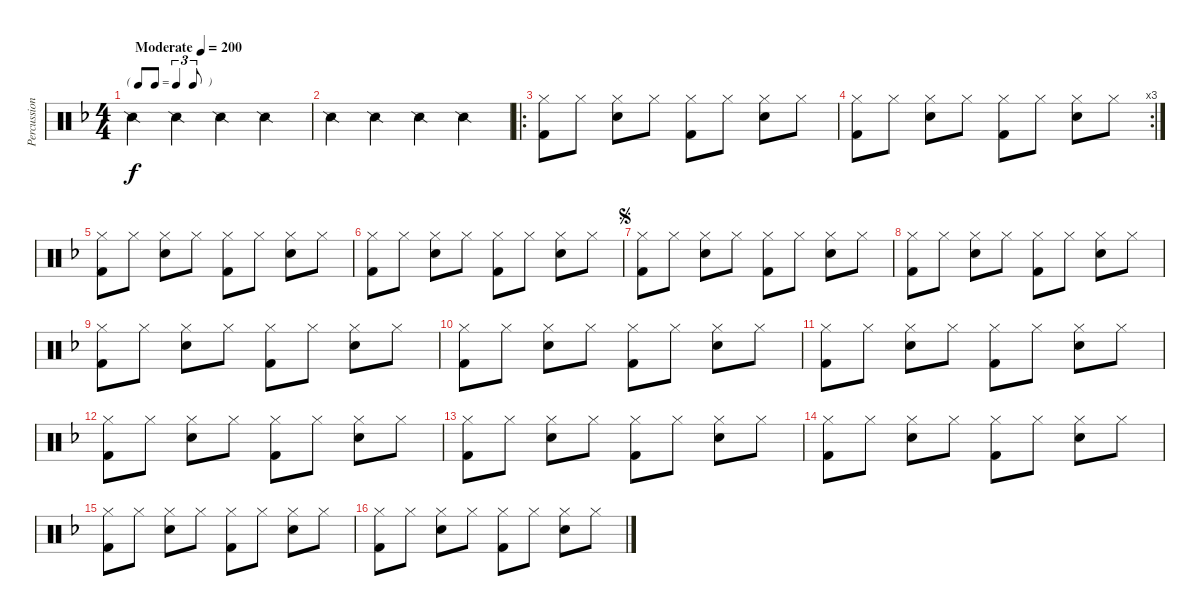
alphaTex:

\track ("Percussion" "Percussion") {instrument percussion}
\staff {score}
\articulation defaults
\ts (4 4)
\tf triplet8th
\tempo (200 "Moderate")
\clef neutral
\ks f "Snare (side stick) 2".4{dy f} "Snare (side stick) 2".4 "Snare (side stick) 2".4 "Snare (side stick) 2".4
|
"Snare (side stick) 2".4 "Snare (side stick) 2".4 "Snare (side stick) 2".4 "Snare (side stick) 2".4 |
\ro
("Hi-Hat (closed)" "Kick (hit) 2").8 "Hi-Hat (closed)".8 ("Hi-Hat (closed)" "Electric Snare (hit)").8 "Hi-Hat (closed)".8 ("Hi-Hat (closed)" "Kick (hit) 2").8 "Hi-Hat (closed)".8 ("Hi-Hat (closed)" "Electric Snare (hit)").8 "Hi-Hat (closed)".8 |
\rc 3
("Hi-Hat (closed)" "Kick (hit) 2").8 "Hi-Hat (closed)".8 ("Hi-Hat (closed)" "Electric Snare (hit)").8 "Hi-Hat (closed)".8 ("Hi-Hat (closed)" "Kick (hit) 2").8 "Hi-Hat (closed)".8 ("Hi-Hat (closed)" "Electric Snare (hit)").8 "Hi-Hat (closed)".8 |
("Hi-Hat (closed)" "Kick (hit) 2").8 "Hi-Hat (closed)".8 ("Hi-Hat (closed)" "Electric Snare (hit)").8 "Hi-Hat (closed)".8 ("Hi-Hat (closed)" "Kick (hit) 2").8 "Hi-Hat (closed)".8 ("Hi-Hat (closed)" "Electric Snare (hit)").8 "Hi-Hat (closed)".8 |
("Hi-Hat (closed)" "Kick (hit) 2").8 "Hi-Hat (closed)".8 ("Hi-Hat (closed)" "Electric Snare (hit)").8 "Hi-Hat (closed)".8 ("Hi-Hat (closed)" "Kick (hit) 2").8 "Hi-Hat (closed)".8 ("Hi-Hat (closed)" "Electric Snare (hit)").8 "Hi-Hat (closed)".8 |
\jump segno
("Hi-Hat (closed)" "Kick (hit) 2").8 "Hi-Hat (closed)".8 ("Hi-Hat (closed)" "Electric Snare (hit)").8 "Hi-Hat (closed)".8 ("Hi-Hat (closed)" "Kick (hit) 2").8 "Hi-Hat (closed)".8 ("Hi-Hat (closed)" "Electric Snare (hit)").8 "Hi-Hat (closed)".8 |
("Hi-Hat (closed)" "Kick (hit) 2").8 "Hi-Hat (closed)".8 ("Hi-Hat (closed)" "Electric Snare (hit)").8 "Hi-Hat (closed)".8 ("Hi-Hat (closed)" "Kick (hit) 2").8 "Hi-Hat (closed)".8 ("Hi-Hat (closed)" "Electric Snare (hit)").8 "Hi-Hat (closed)".8 |
("Hi-Hat (closed)" "Kick (hit) 2").8 "Hi-Hat (closed)".8 ("Hi-Hat (closed)" "Electric Snare (hit)").8 "Hi-Hat (closed)".8 ("Hi-Hat (closed)" "Kick (hit) 2").8 "Hi-Hat (closed)".8 ("Hi-Hat (closed)" "Electric Snare (hit)").8 "Hi-Hat (closed)".8 |
("Hi-Hat (closed)" "Kick (hit) 2").8 "Hi-Hat (closed)".8 ("Hi-Hat (closed)" "Electric Snare (hit)").8 "Hi-Hat (closed)".8 ("Hi-Hat (closed)" "Kick (hit) 2").8 "Hi-Hat (closed)".8 ("Hi-Hat (closed)" "Electric Snare (hit)").8 "Hi-Hat (closed)".8 |
("Hi-Hat (closed)" "Kick (hit) 2").8 "Hi-Hat (closed)".8 ("Hi-Hat (closed)" "Electric Snare (hit)").8 "Hi-Hat (closed)".8 ("Hi-Hat (closed)" "Kick (hit) 2").8 "Hi-Hat (closed)".8 ("Hi-Hat (closed)" "Electric Snare (hit)").8 "Hi-Hat (closed)".8 |
("Hi-Hat (closed)" "Kick (hit) 2").8 "Hi-Hat (closed)".8 ("Hi-Hat (closed)" "Electric Snare (hit)").8 "Hi-Hat (closed)".8 ("Hi-Hat (closed)" "Kick (hit) 2").8 "Hi-Hat (closed)".8 ("Hi-Hat (closed)" "Electric Snare (hit)").8 "Hi-Hat (closed)".8 |
("Hi-Hat (closed)" "Kick (hit) 2").8 "Hi-Hat (closed)".8 ("Hi-Hat (closed)" "Electric Snare (hit)").8 "Hi-Hat (closed)".8 ("Hi-Hat (closed)" "Kick (hit) 2").8 "Hi-Hat (closed)".8 ("Hi-Hat (closed)" "Electric Snare (hit)").8 "Hi-Hat (closed)".8 |
("Hi-Hat (closed)" "Kick (hit) 2").8 "Hi-Hat (closed)".8 ("Hi-Hat (closed)" "Electric Snare (hit)").8 "Hi-Hat (closed)".8 ("Hi-Hat (closed)" "Kick (hit) 2").8 "Hi-Hat (closed)".8 ("Hi-Hat (closed)" "Electric Snare (hit)").8 "Hi-Hat (closed)".8 |
("Hi-Hat (closed)" "Kick (hit) 2").8 "Hi-Hat (closed)".8 ("Hi-Hat (closed)" "Electric Snare (hit)").8 "Hi-Hat (closed)".8 ("Hi-Hat (closed)" "Kick (hit) 2").8 "Hi-Hat (closed)".8 ("Hi-Hat (closed)" "Electric Snare (hit)").8 "Hi-Hat (closed)".8 |
("Hi-Hat (closed)" "Kick (hit) 2").8 "Hi-Hat (closed)".8 ("Hi-Hat (closed)" "Electric Snare (hit)").8 "Hi-Hat (closed)".8 ("Hi-Hat (closed)" "Kick (hit) 2").8 "Hi-Hat (closed)".8 ("Hi-Hat (closed)" "Electric Snare (hit)").8 "Hi-Hat (closed)".8
